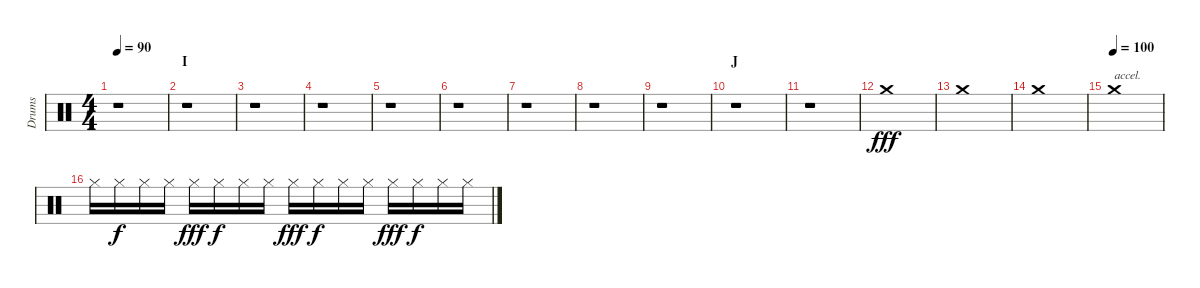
\track ("Drums" "Drums") {instrument percussion}
\staff {score}
\articulation defaults
\ts (4 4)
\tempo 90
\clef neutral
\ks c
r.1{dy fff} |
\section ("" "I")
r.1 |
r.1 |
r.1 |
r.1 |
r.1 |
r.1 |
r.1 |
r.1 |
\section ("" "J")
r.1 |
r.1 |
"Crash medium (hit)".1 |
"Crash medium (hit)".1 |
"Crash medium (hit)".1 |
\tempo (100)
"Crash medium (hit)".1{txt "accel."} |
"Hi-Hat (closed)".16 "Hi-Hat (closed)".16{dy f} "Hi-Hat (closed)".16 "Hi-Hat (closed)".16 "Hi-Hat (closed)".16{dy fff} "Hi-Hat (closed)".16{dy f} "Hi-Hat (closed)".16 "Hi-Hat (closed)".16 "Hi-Hat (closed)".16{dy fff} "Hi-Hat (closed)".16{dy f} "Hi-Hat (closed)".16 "Hi-Hat (closed)".16 "Hi-Hat (closed)".16{dy fff} "Hi-Hat (closed)".16{dy f} "Hi-Hat (closed)".16 "Hi-Hat (closed)".16
